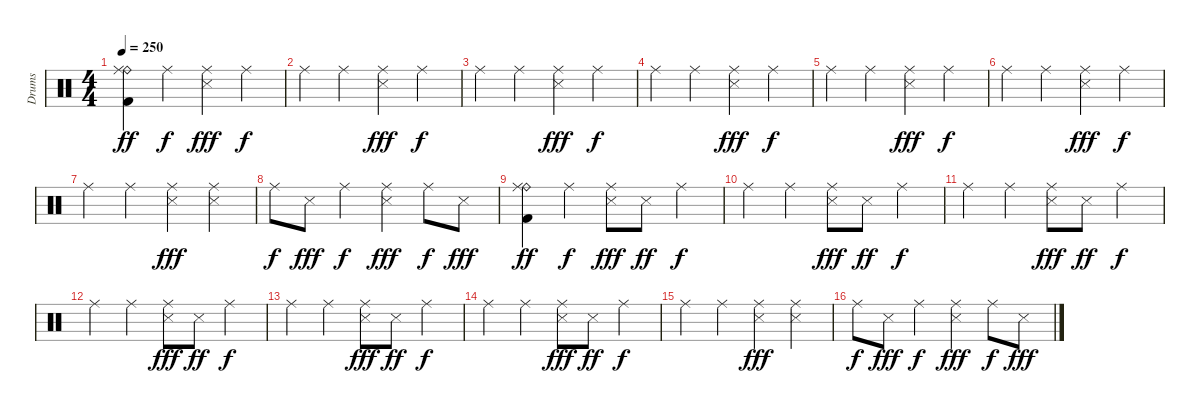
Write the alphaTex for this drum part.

\track ("Drums" "Drums") {instrument percussion}
\staff {score}
\articulation defaults
\ts (4 4)
\tempo 250
\clef neutral
\ks c
("Ride (bell)" "Ride (middle)" "Kick (hit) 2").4{dy ff} "Ride (middle)".4{dy f} ("Ride (middle)" "Snare (side stick) 3").4{dy fff} "Ride (middle)".4{dy f} |
"Ride (middle)".4 "Ride (middle)".4 ("Ride (middle)" "Snare (side stick) 3").4{dy fff} "Ride (middle)".4{dy f} |
"Ride (middle)".4 "Ride (middle)".4 ("Ride (middle)" "Snare (side stick) 3").4{dy fff} "Ride (middle)".4{dy f} |
"Ride (middle)".4 "Ride (middle)".4 ("Ride (middle)" "Snare (side stick) 3").4{dy fff} "Ride (middle)".4{dy f} |
"Ride (middle)".4 "Ride (middle)".4 ("Ride (middle)" "Snare (side stick) 3").4{dy fff} "Ride (middle)".4{dy f} |
"Ride (middle)".4 "Ride (middle)".4 ("Ride (middle)" "Snare (side stick) 3").4{dy fff} "Ride (middle)".4{dy f} |
"Ride (middle)".4 "Ride (middle)".4 ("Ride (middle)" "Snare (side stick) 3").4{dy fff} ("Ride (middle)" "Snare (side stick) 3").4 |
"Ride (middle)".8{dy f} "Snare (side stick) 3".8{dy fff} "Ride (middle)".4{dy f} ("Ride (middle)" "Snare (side stick) 3").4{dy fff} "Ride (middle)".8{dy f} "Snare (side stick) 3".8{dy fff} |
("Ride (bell)" "Ride (middle)" "Kick (hit) 2").4{dy ff} "Ride (middle)".4{dy f} ("Ride (middle)" "Snare (side stick) 3").8{dy fff} "Snare (side stick) 3".8{dy ff} "Ride (middle)".4{dy f} |
"Ride (middle)".4 "Ride (middle)".4 ("Ride (middle)" "Snare (side stick) 3").8{dy fff} "Snare (side stick) 3".8{dy ff} "Ride (middle)".4{dy f} |
"Ride (middle)".4 "Ride (middle)".4 ("Ride (middle)" "Snare (side stick) 3").8{dy fff} "Snare (side stick) 3".8{dy ff} "Ride (middle)".4{dy f} |
"Ride (middle)".4 "Ride (middle)".4 ("Ride (middle)" "Snare (side stick) 3").8{dy fff} "Snare (side stick) 3".8{dy ff} "Ride (middle)".4{dy f} |
"Ride (middle)".4 "Ride (middle)".4 ("Ride (middle)" "Snare (side stick) 3").8{dy fff} "Snare (side stick) 3".8{dy ff} "Ride (middle)".4{dy f} |
"Ride (middle)".4 "Ride (middle)".4 ("Ride (middle)" "Snare (side stick) 3").8{dy fff} "Snare (side stick) 3".8{dy ff} "Ride (middle)".4{dy f} |
"Ride (middle)".4 "Ride (middle)".4 ("Ride (middle)" "Snare (side stick) 3").4{dy fff} ("Ride (middle)" "Snare (side stick) 3").4 |
"Ride (middle)".8{dy f} "Snare (side stick) 3".8{dy fff} "Ride (middle)".4{dy f} ("Ride (middle)" "Snare (side stick) 3").4{dy fff} "Ride (middle)".8{dy f} "Snare (side stick) 3".8{dy fff}
